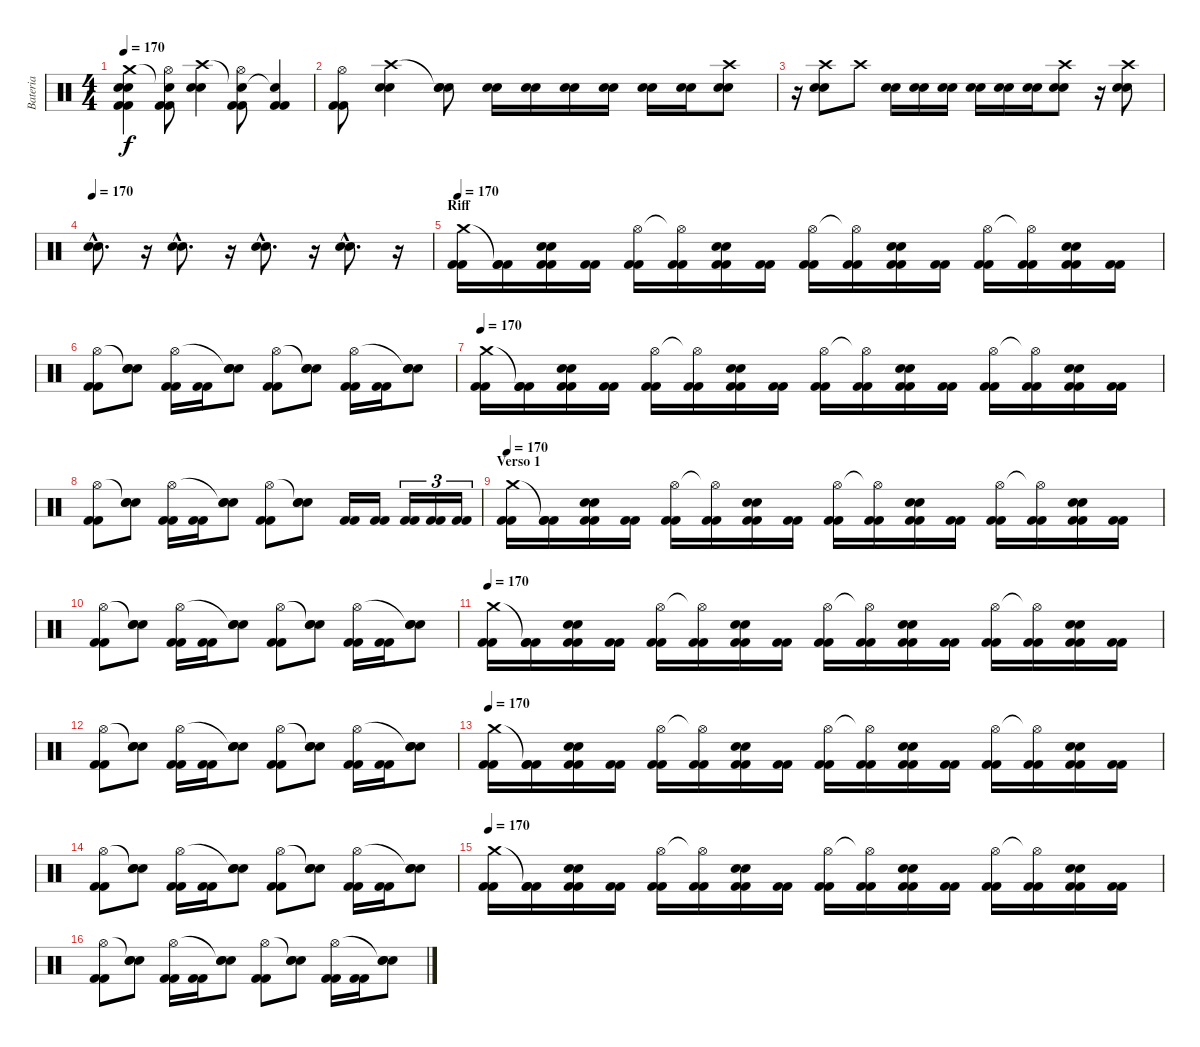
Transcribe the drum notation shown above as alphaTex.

\track ("Bateria" "Bateria") {instrument percussion}
\staff {score}
\articulation defaults
\ts (4 4)
\tempo 170
\clef neutral
\ks c
("Crash medium (hit)" "Snare (hit) 2" "Snare (hit) 2" "Kick (hit) 2" "Kick (hit) 2").4{dy f} ("Snare (hit)"{t} "Hi-Hat (open)" "Kick (hit) 2" "Kick (hit) 2").8 ("Crash high (hit)" "Snare (hit) 2" "Snare (hit) 2").4 ("Snare (hit)"{t} "Hi-Hat (open)" "Kick (hit) 2" "Kick (hit) 2").8 ("Snare (hit)"{t} "Kick (hit) 2" "Kick (hit) 2").4 |
("Hi-Hat (open)" "Kick (hit) 2" "Kick (hit) 2").8 ("Crash high (hit)" "Snare (hit) 2" "Snare (hit) 2").4 ("Snare (hit)"{t} "Electric Snare (hit)" "Electric Snare (hit)").8 ("Snare (hit) 2" "Snare (hit) 2").16 ("Snare (hit) 2" "Snare (hit) 2").16 ("Snare (hit) 2" "Snare (hit) 2").16 ("Snare (hit) 2" "Snare (hit) 2").16 ("Snare (hit) 2" "Snare (hit) 2").16 ("Snare (hit) 2" "Snare (hit) 2").16 ("Crash high (hit)" "Snare (hit) 2" "Snare (hit) 2").8 |
r.16 ("Crash high (hit)" "Snare (hit) 2" "Snare (hit) 2").8 "Crash high (hit)".8 ("Snare (hit) 2" "Snare (hit) 2").16 ("Snare (hit) 2" "Snare (hit) 2").16 ("Snare (hit) 2" "Snare (hit) 2").16 ("Snare (hit) 2" "Snare (hit) 2").16 ("Snare (hit) 2" "Snare (hit) 2").16 ("Snare (hit) 2" "Snare (hit) 2").16 ("Crash high (hit)" "Snare (hit) 2" "Snare (hit) 2").8 r.16 ("Crash high (hit)" "Snare (hit) 2" "Snare (hit) 2").8 |
\tempo 170
("Snare (hit) 2"{hac} "Snare (hit) 2"{hac}).8{d} r.16 ("Snare (hit) 2"{hac} "Snare (hit) 2"{hac}).8{d} r.16 ("Snare (hit) 2"{hac} "Snare (hit) 2"{hac}).8{d} r.16 ("Snare (hit) 2"{hac} "Snare (hit) 2"{hac}).8{d} r.16 |
\section ("" "Riff")
\tempo 170
("Kick (hit) 2" "Kick (hit) 2" "Crash medium (hit)").16 ("Kick (hit) 2" "Kick (hit) 2" "Kick (hit) 2"{t}).16 ("Kick (hit) 2" "Kick (hit) 2" "Electric Snare (hit)" "Electric Snare (hit)").16 ("Kick (hit) 2" "Kick (hit) 2").16 ("Kick (hit) 2" "Kick (hit) 2" "Hi-Hat (open)").16 ("Kick (hit) 2" "Kick (hit) 2" "Hi-Hat (open)"{t}).16 ("Kick (hit) 2" "Kick (hit) 2" "Electric Snare (hit)" "Electric Snare (hit)").16 ("Kick (hit) 2" "Kick (hit) 2").16 ("Kick (hit) 2" "Kick (hit) 2" "Hi-Hat (open)").16 ("Kick (hit) 2" "Kick (hit) 2" "Hi-Hat (open)"{t}).16 ("Kick (hit) 2" "Kick (hit) 2" "Electric Snare (hit)" "Electric Snare (hit)").16 ("Kick (hit) 2" "Kick (hit) 2").16 ("Kick (hit) 2" "Kick (hit) 2" "Hi-Hat (open)").16 ("Kick (hit) 2" "Kick (hit) 2" "Hi-Hat (open)"{t}).16 ("Kick (hit) 2" "Kick (hit) 2" "Electric Snare (hit)" "Electric Snare (hit)").16 ("Kick (hit) 2" "Kick (hit) 2").16 |
("Kick (hit) 2" "Kick (hit) 2" "Hi-Hat (open)").8 ("Electric Snare (hit)" "Electric Snare (hit)" "Snare (hit)"{t}).8 ("Kick (hit) 2" "Kick (hit) 2" "Hi-Hat (open)").16 ("Kick (hit) 2" "Kick (hit) 2").16 ("Electric Snare (hit)" "Electric Snare (hit)" "Snare (hit)"{t}).8 ("Kick (hit) 2" "Kick (hit) 2" "Hi-Hat (open)").8 ("Electric Snare (hit)" "Electric Snare (hit)" "Snare (hit)"{t}).8 ("Kick (hit) 2" "Kick (hit) 2" "Hi-Hat (open)").16 ("Kick (hit) 2" "Kick (hit) 2").16 ("Electric Snare (hit)" "Electric Snare (hit)" "Snare (hit)"{t}).8 |
\tempo 170
("Kick (hit) 2" "Kick (hit) 2" "Crash medium (hit)").16 ("Kick (hit) 2" "Kick (hit) 2" "Kick (hit) 2"{t}).16 ("Kick (hit) 2" "Kick (hit) 2" "Electric Snare (hit)" "Electric Snare (hit)").16 ("Kick (hit) 2" "Kick (hit) 2").16 ("Kick (hit) 2" "Kick (hit) 2" "Hi-Hat (open)").16 ("Kick (hit) 2" "Kick (hit) 2" "Hi-Hat (open)"{t}).16 ("Kick (hit) 2" "Kick (hit) 2" "Electric Snare (hit)" "Electric Snare (hit)").16 ("Kick (hit) 2" "Kick (hit) 2").16 ("Kick (hit) 2" "Kick (hit) 2" "Hi-Hat (open)").16 ("Kick (hit) 2" "Kick (hit) 2" "Hi-Hat (open)"{t}).16 ("Kick (hit) 2" "Kick (hit) 2" "Electric Snare (hit)" "Electric Snare (hit)").16 ("Kick (hit) 2" "Kick (hit) 2").16 ("Kick (hit) 2" "Kick (hit) 2" "Hi-Hat (open)").16 ("Kick (hit) 2" "Kick (hit) 2" "Hi-Hat (open)"{t}).16 ("Kick (hit) 2" "Kick (hit) 2" "Electric Snare (hit)" "Electric Snare (hit)").16 ("Kick (hit) 2" "Kick (hit) 2").16 |
("Kick (hit) 2" "Kick (hit) 2" "Hi-Hat (open)").8 ("Electric Snare (hit)" "Electric Snare (hit)" "Snare (hit)"{t}).8 ("Kick (hit) 2" "Kick (hit) 2" "Hi-Hat (open)").16 ("Kick (hit) 2" "Kick (hit) 2").16 ("Electric Snare (hit)" "Electric Snare (hit)" "Snare (hit)"{t}).8 ("Kick (hit) 2" "Kick (hit) 2" "Hi-Hat (open)").8 ("Electric Snare (hit)" "Electric Snare (hit)" "Snare (hit)"{t}).8 ("Kick (hit) 2" "Kick (hit) 2").16 ("Kick (hit) 2" "Kick (hit) 2").16 ("Kick (hit) 2" "Kick (hit) 2").16{tu (3 2)} ("Kick (hit) 2" "Kick (hit) 2").16{tu (3 2)} ("Kick (hit) 2" "Kick (hit) 2").16{tu (3 2)} |
\section ("" "Verso 1")
\tempo 170
("Kick (hit) 2" "Kick (hit) 2" "Crash medium (hit)").16 ("Kick (hit) 2" "Kick (hit) 2" "Kick (hit) 2"{t}).16 ("Kick (hit) 2" "Kick (hit) 2" "Electric Snare (hit)" "Electric Snare (hit)").16 ("Kick (hit) 2" "Kick (hit) 2").16 ("Kick (hit) 2" "Kick (hit) 2" "Hi-Hat (open)").16 ("Kick (hit) 2" "Kick (hit) 2" "Hi-Hat (open)"{t}).16 ("Kick (hit) 2" "Kick (hit) 2" "Electric Snare (hit)" "Electric Snare (hit)").16 ("Kick (hit) 2" "Kick (hit) 2").16 ("Kick (hit) 2" "Kick (hit) 2" "Hi-Hat (open)").16 ("Kick (hit) 2" "Kick (hit) 2" "Hi-Hat (open)"{t}).16 ("Kick (hit) 2" "Kick (hit) 2" "Electric Snare (hit)" "Electric Snare (hit)").16 ("Kick (hit) 2" "Kick (hit) 2").16 ("Kick (hit) 2" "Kick (hit) 2" "Hi-Hat (open)").16 ("Kick (hit) 2" "Kick (hit) 2" "Hi-Hat (open)"{t}).16 ("Kick (hit) 2" "Kick (hit) 2" "Electric Snare (hit)" "Electric Snare (hit)").16 ("Kick (hit) 2" "Kick (hit) 2").16 |
("Kick (hit) 2" "Kick (hit) 2" "Hi-Hat (open)").8 ("Electric Snare (hit)" "Electric Snare (hit)" "Snare (hit)"{t}).8 ("Kick (hit) 2" "Kick (hit) 2" "Hi-Hat (open)").16 ("Kick (hit) 2" "Kick (hit) 2").16 ("Electric Snare (hit)" "Electric Snare (hit)" "Snare (hit)"{t}).8 ("Kick (hit) 2" "Kick (hit) 2" "Hi-Hat (open)").8 ("Electric Snare (hit)" "Electric Snare (hit)" "Snare (hit)"{t}).8 ("Kick (hit) 2" "Kick (hit) 2" "Hi-Hat (open)").16 ("Kick (hit) 2" "Kick (hit) 2").16 ("Electric Snare (hit)" "Electric Snare (hit)" "Snare (hit)"{t}).8 |
\tempo 170
("Kick (hit) 2" "Kick (hit) 2" "Crash medium (hit)").16 ("Kick (hit) 2" "Kick (hit) 2" "Kick (hit) 2"{t}).16 ("Kick (hit) 2" "Kick (hit) 2" "Electric Snare (hit)" "Electric Snare (hit)").16 ("Kick (hit) 2" "Kick (hit) 2").16 ("Kick (hit) 2" "Kick (hit) 2" "Hi-Hat (open)").16 ("Kick (hit) 2" "Kick (hit) 2" "Hi-Hat (open)"{t}).16 ("Kick (hit) 2" "Kick (hit) 2" "Electric Snare (hit)" "Electric Snare (hit)").16 ("Kick (hit) 2" "Kick (hit) 2").16 ("Kick (hit) 2" "Kick (hit) 2" "Hi-Hat (open)").16 ("Kick (hit) 2" "Kick (hit) 2" "Hi-Hat (open)"{t}).16 ("Kick (hit) 2" "Kick (hit) 2" "Electric Snare (hit)" "Electric Snare (hit)").16 ("Kick (hit) 2" "Kick (hit) 2").16 ("Kick (hit) 2" "Kick (hit) 2" "Hi-Hat (open)").16 ("Kick (hit) 2" "Kick (hit) 2" "Hi-Hat (open)"{t}).16 ("Kick (hit) 2" "Kick (hit) 2" "Electric Snare (hit)" "Electric Snare (hit)").16 ("Kick (hit) 2" "Kick (hit) 2").16 |
("Kick (hit) 2" "Kick (hit) 2" "Hi-Hat (open)").8 ("Electric Snare (hit)" "Electric Snare (hit)" "Snare (hit)"{t}).8 ("Kick (hit) 2" "Kick (hit) 2" "Hi-Hat (open)").16 ("Kick (hit) 2" "Kick (hit) 2").16 ("Electric Snare (hit)" "Electric Snare (hit)" "Snare (hit)"{t}).8 ("Kick (hit) 2" "Kick (hit) 2" "Hi-Hat (open)").8 ("Electric Snare (hit)" "Electric Snare (hit)" "Snare (hit)"{t}).8 ("Kick (hit) 2" "Kick (hit) 2" "Hi-Hat (open)").16 ("Kick (hit) 2" "Kick (hit) 2").16 ("Electric Snare (hit)" "Electric Snare (hit)" "Snare (hit)"{t}).8 |
\tempo 170
("Kick (hit) 2" "Kick (hit) 2" "Crash medium (hit)").16 ("Kick (hit) 2" "Kick (hit) 2" "Kick (hit) 2"{t}).16 ("Kick (hit) 2" "Kick (hit) 2" "Electric Snare (hit)" "Electric Snare (hit)").16 ("Kick (hit) 2" "Kick (hit) 2").16 ("Kick (hit) 2" "Kick (hit) 2" "Hi-Hat (open)").16 ("Kick (hit) 2" "Kick (hit) 2" "Hi-Hat (open)"{t}).16 ("Kick (hit) 2" "Kick (hit) 2" "Electric Snare (hit)" "Electric Snare (hit)").16 ("Kick (hit) 2" "Kick (hit) 2").16 ("Kick (hit) 2" "Kick (hit) 2" "Hi-Hat (open)").16 ("Kick (hit) 2" "Kick (hit) 2" "Hi-Hat (open)"{t}).16 ("Kick (hit) 2" "Kick (hit) 2" "Electric Snare (hit)" "Electric Snare (hit)").16 ("Kick (hit) 2" "Kick (hit) 2").16 ("Kick (hit) 2" "Kick (hit) 2" "Hi-Hat (open)").16 ("Kick (hit) 2" "Kick (hit) 2" "Hi-Hat (open)"{t}).16 ("Kick (hit) 2" "Kick (hit) 2" "Electric Snare (hit)" "Electric Snare (hit)").16 ("Kick (hit) 2" "Kick (hit) 2").16 |
("Kick (hit) 2" "Kick (hit) 2" "Hi-Hat (open)").8 ("Electric Snare (hit)" "Electric Snare (hit)" "Snare (hit)"{t}).8 ("Kick (hit) 2" "Kick (hit) 2" "Hi-Hat (open)").16 ("Kick (hit) 2" "Kick (hit) 2").16 ("Electric Snare (hit)" "Electric Snare (hit)" "Snare (hit)"{t}).8 ("Kick (hit) 2" "Kick (hit) 2" "Hi-Hat (open)").8 ("Electric Snare (hit)" "Electric Snare (hit)" "Snare (hit)"{t}).8 ("Kick (hit) 2" "Kick (hit) 2" "Hi-Hat (open)").16 ("Kick (hit) 2" "Kick (hit) 2").16 ("Electric Snare (hit)" "Electric Snare (hit)" "Snare (hit)"{t}).8 |
\tempo 170
("Kick (hit) 2" "Kick (hit) 2" "Crash medium (hit)").16 ("Kick (hit) 2" "Kick (hit) 2" "Kick (hit) 2"{t}).16 ("Kick (hit) 2" "Kick (hit) 2" "Electric Snare (hit)" "Electric Snare (hit)").16 ("Kick (hit) 2" "Kick (hit) 2").16 ("Kick (hit) 2" "Kick (hit) 2" "Hi-Hat (open)").16 ("Kick (hit) 2" "Kick (hit) 2" "Hi-Hat (open)"{t}).16 ("Kick (hit) 2" "Kick (hit) 2" "Electric Snare (hit)" "Electric Snare (hit)").16 ("Kick (hit) 2" "Kick (hit) 2").16 ("Kick (hit) 2" "Kick (hit) 2" "Hi-Hat (open)").16 ("Kick (hit) 2" "Kick (hit) 2" "Hi-Hat (open)"{t}).16 ("Kick (hit) 2" "Kick (hit) 2" "Electric Snare (hit)" "Electric Snare (hit)").16 ("Kick (hit) 2" "Kick (hit) 2").16 ("Kick (hit) 2" "Kick (hit) 2" "Hi-Hat (open)").16 ("Kick (hit) 2" "Kick (hit) 2" "Hi-Hat (open)"{t}).16 ("Kick (hit) 2" "Kick (hit) 2" "Electric Snare (hit)" "Electric Snare (hit)").16 ("Kick (hit) 2" "Kick (hit) 2").16 |
("Kick (hit) 2" "Kick (hit) 2" "Hi-Hat (open)").8 ("Electric Snare (hit)" "Electric Snare (hit)" "Snare (hit)"{t}).8 ("Kick (hit) 2" "Kick (hit) 2" "Hi-Hat (open)").16 ("Kick (hit) 2" "Kick (hit) 2").16 ("Electric Snare (hit)" "Electric Snare (hit)" "Snare (hit)"{t}).8 ("Kick (hit) 2" "Kick (hit) 2" "Hi-Hat (open)").8 ("Electric Snare (hit)" "Electric Snare (hit)" "Snare (hit)"{t}).8 ("Kick (hit) 2" "Kick (hit) 2" "Hi-Hat (open)").16 ("Kick (hit) 2" "Kick (hit) 2").16 ("Electric Snare (hit)" "Electric Snare (hit)" "Snare (hit)"{t}).8
